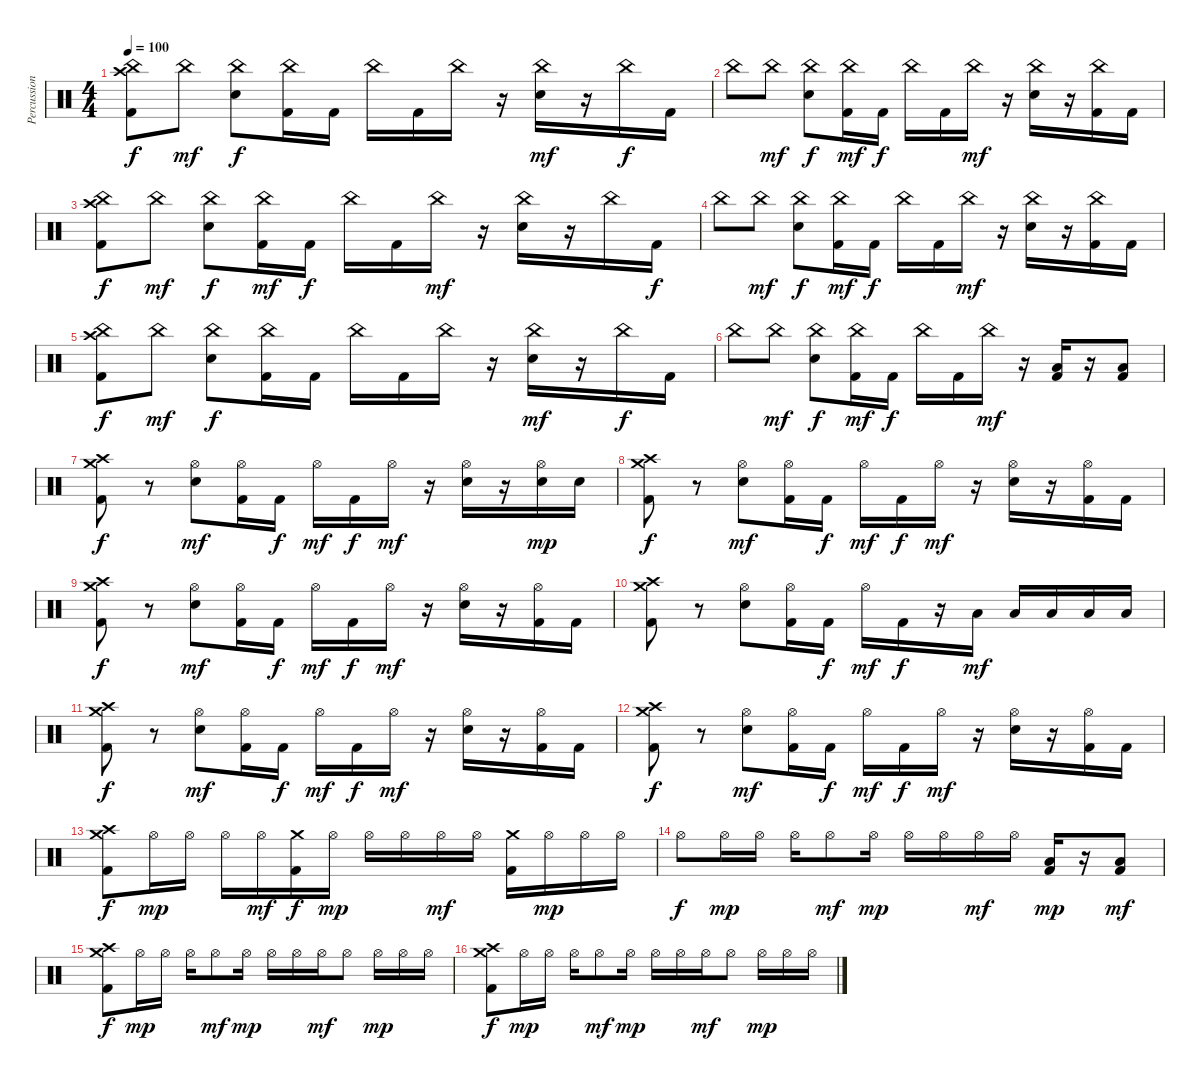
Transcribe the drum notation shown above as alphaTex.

\track ("Percussion" "Percussion") {instrument percussion}
\staff {score}
\articulation defaults
\ts (4 4)
\tempo 100
\clef neutral
\ks c
("Crash high (hit)" "China (hit)" "Kick (hit) 2").8{dy f} "China (hit)".8{dy mf} ("China (hit)" "Electric Snare (hit)").8{dy f} ("China (hit)" "Kick (hit) 2").16 "Kick (hit) 2".16 "China (hit)".16 "Kick (hit) 2".16 "China (hit)".16 r.16 ("China (hit)" "Electric Snare (hit)").16{dy mf} r.16 "China (hit)".16{dy f} "Kick (hit) 2".16 |
"China (hit)".8 "China (hit)".8{dy mf} ("China (hit)" "Electric Snare (hit)").8{dy f} ("China (hit)" "Kick (hit) 2").16{dy mf} "Kick (hit) 2".16{dy f} "China (hit)".16 "Kick (hit) 2".16 "China (hit)".16{dy mf} r.16 ("China (hit)" "Electric Snare (hit)").16 r.16 ("China (hit)" "Kick (hit) 2").16 "Kick (hit) 2".16 |
("China (hit)" "Crash high (hit)" "Kick (hit) 2").8{dy f} "China (hit)".8{dy mf} ("China (hit)" "Electric Snare (hit)").8{dy f} ("China (hit)" "Kick (hit) 2").16{dy mf} "Kick (hit) 2".16{dy f} "China (hit)".16 "Kick (hit) 2".16 "China (hit)".16{dy mf} r.16 ("China (hit)" "Electric Snare (hit)").16 r.16 "China (hit)".16 "Kick (hit) 2".16{dy f} |
"China (hit)".8 "China (hit)".8{dy mf} ("China (hit)" "Electric Snare (hit)").8{dy f} ("China (hit)" "Kick (hit) 2").16{dy mf} "Kick (hit) 2".16{dy f} "China (hit)".16 "Kick (hit) 2".16 "China (hit)".16{dy mf} r.16 ("China (hit)" "Electric Snare (hit)").16 r.16 ("China (hit)" "Kick (hit) 2").16 "Kick (hit) 2".16 |
("China (hit)" "Crash high (hit)" "Kick (hit) 2").8{dy f} "China (hit)".8{dy mf} ("China (hit)" "Electric Snare (hit)").8{dy f} ("China (hit)" "Kick (hit) 2").16 "Kick (hit) 2".16 "China (hit)".16 "Kick (hit) 2".16 "China (hit)".16 r.16 ("China (hit)" "Electric Snare (hit)").16{dy mf} r.16 "China (hit)".16{dy f} "Kick (hit) 2".16 |
"China (hit)".8 "China (hit)".8{dy mf} ("China (hit)" "Electric Snare (hit)").8{dy f} ("China (hit)" "Kick (hit) 2").16{dy mf} "Kick (hit) 2".16{dy f} "China (hit)".16 "Kick (hit) 2".16 "China (hit)".16{dy mf} r.16 ("Low Tom (hit)" "Kick (hit) 2").16 r.16 ("Low Floor Tom (hit)" "Kick (hit) 2").8 |
("Crash high (hit)" "Crash medium (hit)" "Kick (hit) 2").8{dy f} r.8 ("Hi-Hat (open)" "Electric Snare (hit)").8{dy mf} ("Hi-Hat (open)" "Kick (hit) 2").16 "Kick (hit) 2".16{dy f} "Hi-Hat (open)".16{dy mf} "Kick (hit) 2".16{dy f} "Hi-Hat (open)".16{dy mf} r.16 ("Hi-Hat (open)" "Electric Snare (hit)").16 r.16 ("Hi-Hat (open)" "Electric Snare (hit)").16{dy mp} "Electric Snare (hit)".16 |
("Crash high (hit)" "Crash medium (hit)" "Kick (hit) 2").8{dy f} r.8 ("Hi-Hat (open)" "Electric Snare (hit)").8{dy mf} ("Hi-Hat (open)" "Kick (hit) 2").16 "Kick (hit) 2".16{dy f} "Hi-Hat (open)".16{dy mf} "Kick (hit) 2".16{dy f} "Hi-Hat (open)".16{dy mf} r.16 ("Hi-Hat (open)" "Electric Snare (hit)").16 r.16 ("Hi-Hat (open)" "Kick (hit) 2").16 "Kick (hit) 2".16 |
("Crash high (hit)" "Crash medium (hit)" "Kick (hit) 2").8{dy f} r.8 ("Hi-Hat (open)" "Electric Snare (hit)").8{dy mf} ("Hi-Hat (open)" "Kick (hit) 2").16 "Kick (hit) 2".16{dy f} "Hi-Hat (open)".16{dy mf} "Kick (hit) 2".16{dy f} "Hi-Hat (open)".16{dy mf} r.16 ("Hi-Hat (open)" "Electric Snare (hit)").16 r.16 ("Hi-Hat (open)" "Kick (hit) 2").16 "Kick (hit) 2".16 |
("Crash high (hit)" "Crash medium (hit)" "Kick (hit) 2").8 r.8 ("Hi-Hat (open)" "Electric Snare (hit)").8 ("Hi-Hat (open)" "Kick (hit) 2").16 "Kick (hit) 2".16{dy f} "Hi-Hat (open)".16{dy mf} "Kick (hit) 2".16{dy f} r.16 "Low Tom (hit)".16{dy mf} "Low Tom (hit)".16 "Low Floor Tom (hit)".16 "Low Floor Tom (hit)".16 "Low Floor Tom (hit)".16 |
("Crash high (hit)" "Crash medium (hit)" "Kick (hit) 2").8{dy f} r.8 ("Hi-Hat (open)" "Electric Snare (hit)").8{dy mf} ("Hi-Hat (open)" "Kick (hit) 2").16 "Kick (hit) 2".16{dy f} "Hi-Hat (open)".16{dy mf} "Kick (hit) 2".16{dy f} "Hi-Hat (open)".16{dy mf} r.16 ("Hi-Hat (open)" "Electric Snare (hit)").16 r.16 ("Hi-Hat (open)" "Kick (hit) 2").16 "Kick (hit) 2".16 |
("Crash high (hit)" "Crash medium (hit)" "Kick (hit) 2").8{dy f} r.8 ("Hi-Hat (open)" "Electric Snare (hit)").8{dy mf} ("Hi-Hat (open)" "Kick (hit) 2").16 "Kick (hit) 2".16{dy f} "Hi-Hat (open)".16{dy mf} "Kick (hit) 2".16{dy f} "Hi-Hat (open)".16{dy mf} r.16 ("Hi-Hat (open)" "Electric Snare (hit)").16 r.16 ("Hi-Hat (open)" "Kick (hit) 2").16 "Kick (hit) 2".16 |
("Crash high (hit)" "Crash medium (hit)" "Kick (hit) 2").8{dy f} "Hi-Hat (open)".16{dy mp} "Hi-Hat (open)".16 "Hi-Hat (open)".16 "Hi-Hat (open)".16{dy mf} ("Crash medium (hit)" "Kick (hit) 2").16{dy f} "Hi-Hat (open)".16{dy mp} "Hi-Hat (open)".16 "Hi-Hat (open)".16 "Hi-Hat (open)".16{dy mf} "Hi-Hat (open)".16 ("Crash medium (hit)" "Kick (hit) 2").16 "Hi-Hat (open)".16{dy mp} "Hi-Hat (open)".16 "Hi-Hat (open)".16 |
"Hi-Hat (open)".8{dy f} "Hi-Hat (open)".16{dy mp} "Hi-Hat (open)".16 "Hi-Hat (open)".16 "Hi-Hat (open)".8{dy mf} "Hi-Hat (open)".16{dy mp} "Hi-Hat (open)".16 "Hi-Hat (open)".16 "Hi-Hat (open)".16{dy mf} "Hi-Hat (open)".16 ("Low Tom (hit)" "Kick (hit) 2").16{dy mp} r.16 ("Low Floor Tom (hit)" "Kick (hit) 2").8{dy mf} |
("Crash high (hit)" "Crash medium (hit)" "Kick (hit) 2").8{dy f} "Hi-Hat (open)".16{dy mp} "Hi-Hat (open)".16 "Hi-Hat (open)".16 "Hi-Hat (open)".8{dy mf} "Hi-Hat (open)".16{dy mp} "Hi-Hat (open)".16 "Hi-Hat (open)".16 "Hi-Hat (open)".16{dy mf} "Hi-Hat (open)".8 "Hi-Hat (open)".16{dy mp} "Hi-Hat (open)".16 "Hi-Hat (open)".16 |
("Crash high (hit)" "Crash medium (hit)" "Kick (hit) 2").8{dy f} "Hi-Hat (open)".16{dy mp} "Hi-Hat (open)".16 "Hi-Hat (open)".16 "Hi-Hat (open)".8{dy mf} "Hi-Hat (open)".16{dy mp} "Hi-Hat (open)".16 "Hi-Hat (open)".16 "Hi-Hat (open)".16{dy mf} "Hi-Hat (open)".8 "Hi-Hat (open)".16{dy mp} "Hi-Hat (open)".16 "Hi-Hat (open)".16
